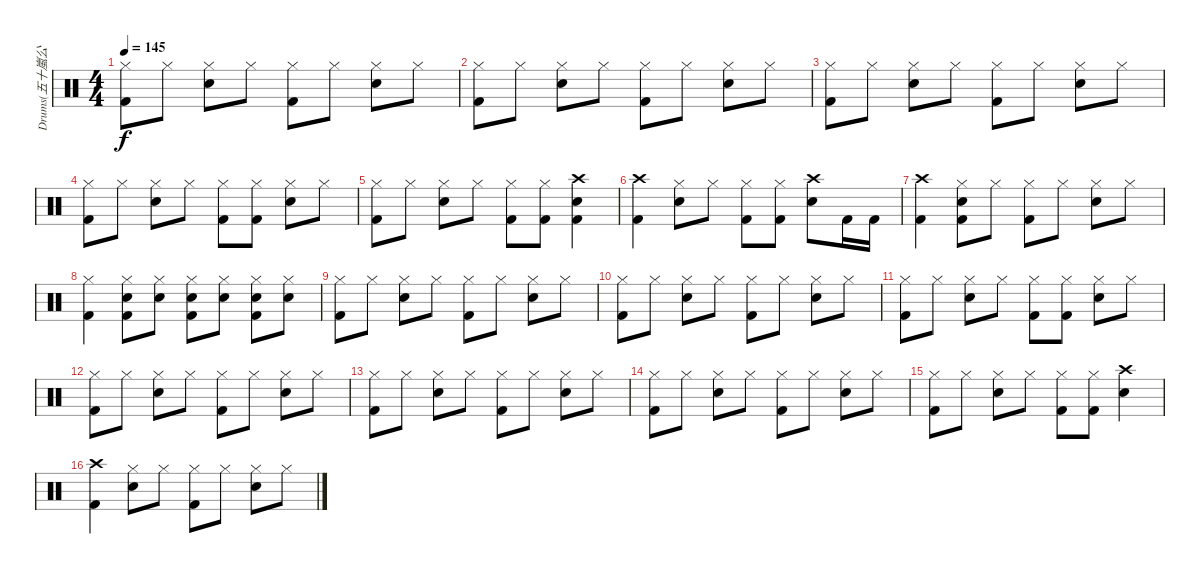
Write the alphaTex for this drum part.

\track ("Drums(五十嵐公太)" "Drums(五十嵐公") {instrument percussion}
\staff {score}
\articulation defaults
\ts (4 4)
\tempo 145
\clef neutral
\ks c
("Hi-Hat (closed)" "Kick (hit) 2").8{dy f} "Hi-Hat (closed)".8 ("Hi-Hat (closed)" "Snare (hit) 2").8 "Hi-Hat (closed)".8 ("Hi-Hat (closed)" "Kick (hit) 2").8 "Hi-Hat (closed)".8 ("Hi-Hat (closed)" "Snare (hit) 2").8 "Hi-Hat (closed)".8 |
("Hi-Hat (closed)" "Kick (hit) 2").8 "Hi-Hat (closed)".8 ("Hi-Hat (closed)" "Snare (hit) 2").8 "Hi-Hat (closed)".8 ("Hi-Hat (closed)" "Kick (hit) 2").8 "Hi-Hat (closed)".8 ("Hi-Hat (closed)" "Snare (hit) 2").8 "Hi-Hat (closed)".8 |
("Hi-Hat (closed)" "Kick (hit) 2").8 "Hi-Hat (closed)".8 ("Hi-Hat (closed)" "Snare (hit) 2").8 "Hi-Hat (closed)".8 ("Hi-Hat (closed)" "Kick (hit) 2").8 "Hi-Hat (closed)".8 ("Hi-Hat (closed)" "Snare (hit) 2").8 "Hi-Hat (closed)".8 |
("Hi-Hat (closed)" "Kick (hit) 2").8 "Hi-Hat (closed)".8 ("Hi-Hat (closed)" "Snare (hit) 2").8 "Hi-Hat (closed)".8 ("Hi-Hat (closed)" "Kick (hit) 2").8 ("Hi-Hat (closed)" "Kick (hit) 2").8 ("Hi-Hat (closed)" "Snare (hit) 2").8 "Hi-Hat (closed)".8 |
("Hi-Hat (closed)" "Kick (hit) 2").8 "Hi-Hat (closed)".8 ("Hi-Hat (closed)" "Snare (hit) 2").8 "Hi-Hat (closed)".8 ("Hi-Hat (closed)" "Kick (hit) 2").8 ("Hi-Hat (closed)" "Kick (hit) 2").8 ("Crash high (hit)" "Snare (hit) 2" "Kick (hit) 2").4 |
("Crash high (hit)" "Kick (hit) 2").4 ("Hi-Hat (closed)" "Snare (hit) 2").8 "Hi-Hat (closed)".8 ("Hi-Hat (closed)" "Kick (hit) 2").8 ("Hi-Hat (closed)" "Kick (hit) 2").8 ("Crash high (hit)" "Snare (hit) 2").8 "Kick (hit) 2".16 "Kick (hit) 2".16 |
("Crash high (hit)" "Kick (hit) 2").4 ("Hi-Hat (closed)" "Snare (hit) 2" "Kick (hit) 2").8 "Hi-Hat (closed)".8 ("Hi-Hat (closed)" "Kick (hit) 2").8 "Hi-Hat (closed)".8 ("Hi-Hat (closed)" "Snare (hit) 2").8 "Hi-Hat (closed)".8 |
("Hi-Hat (closed)" "Kick (hit) 2").4 ("Hi-Hat (closed)" "Snare (hit) 2" "Kick (hit) 2").8 ("Hi-Hat (closed)" "Snare (hit) 2").8 ("Hi-Hat (closed)" "Snare (hit) 2" "Kick (hit) 2").8 ("Hi-Hat (closed)" "Snare (hit) 2").8 ("Hi-Hat (closed)" "Snare (hit) 2" "Kick (hit) 2").8 ("Hi-Hat (closed)" "Snare (hit) 2").8 |
("Hi-Hat (closed)" "Kick (hit) 2").8 "Hi-Hat (closed)".8 ("Hi-Hat (closed)" "Snare (hit) 2").8 "Hi-Hat (closed)".8 ("Hi-Hat (closed)" "Kick (hit) 2").8 "Hi-Hat (closed)".8 ("Hi-Hat (closed)" "Snare (hit) 2").8 "Hi-Hat (closed)".8 |
("Hi-Hat (closed)" "Kick (hit) 2").8 "Hi-Hat (closed)".8 ("Hi-Hat (closed)" "Snare (hit) 2").8 "Hi-Hat (closed)".8 ("Hi-Hat (closed)" "Kick (hit) 2").8 "Hi-Hat (closed)".8 ("Hi-Hat (closed)" "Snare (hit) 2").8 "Hi-Hat (closed)".8 |
("Hi-Hat (closed)" "Kick (hit) 2").8 "Hi-Hat (closed)".8 ("Hi-Hat (closed)" "Snare (hit) 2").8 "Hi-Hat (closed)".8 ("Hi-Hat (closed)" "Kick (hit) 2").8 ("Hi-Hat (closed)" "Kick (hit) 2").8 ("Hi-Hat (closed)" "Snare (hit) 2").8 "Hi-Hat (closed)".8 |
("Hi-Hat (closed)" "Kick (hit) 2").8 "Hi-Hat (closed)".8 ("Hi-Hat (closed)" "Snare (hit) 2").8 "Hi-Hat (closed)".8 ("Hi-Hat (closed)" "Kick (hit) 2").8 "Hi-Hat (closed)".8 ("Hi-Hat (closed)" "Snare (hit) 2").8 "Hi-Hat (closed)".8 |
("Hi-Hat (closed)" "Kick (hit) 2").8 "Hi-Hat (closed)".8 ("Hi-Hat (closed)" "Snare (hit) 2").8 "Hi-Hat (closed)".8 ("Hi-Hat (closed)" "Kick (hit) 2").8 "Hi-Hat (closed)".8 ("Hi-Hat (closed)" "Snare (hit) 2").8 "Hi-Hat (closed)".8 |
("Hi-Hat (closed)" "Kick (hit) 2").8 "Hi-Hat (closed)".8 ("Hi-Hat (closed)" "Snare (hit) 2").8 "Hi-Hat (closed)".8 ("Hi-Hat (closed)" "Kick (hit) 2").8 "Hi-Hat (closed)".8 ("Hi-Hat (closed)" "Snare (hit) 2").8 "Hi-Hat (closed)".8 |
("Hi-Hat (closed)" "Kick (hit) 2").8 "Hi-Hat (closed)".8 ("Hi-Hat (closed)" "Snare (hit) 2").8 "Hi-Hat (closed)".8 ("Hi-Hat (closed)" "Kick (hit) 2").8 ("Hi-Hat (closed)" "Kick (hit) 2").8 ("Crash high (hit)" "Snare (hit) 2").4 |
("Crash high (hit)" "Kick (hit) 2").4 ("Hi-Hat (closed)" "Snare (hit) 2").8 "Hi-Hat (closed)".8 ("Hi-Hat (closed)" "Kick (hit) 2").8 "Hi-Hat (closed)".8 ("Hi-Hat (closed)" "Snare (hit) 2").8 "Hi-Hat (closed)".8
